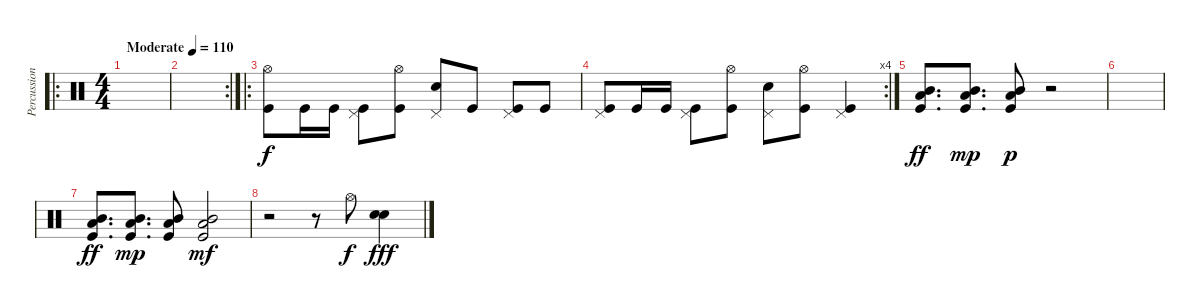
\track ("Percussion" "Percussion") {instrument percussion}
\staff {score}
\articulation defaults
\ro
\ts (4 4)
\tempo (110 "Moderate")
\clef neutral
\ks c
|
\rc 2
|
\ro
("Hi-Hat (open)" "Kick (hit)").8 "Kick (hit)".16 "Kick (hit)".16 ("Pedal Hi-Hat (hit)" "Kick (hit)").8 ("Hi-Hat (open)" "Kick (hit)").8 ("Pedal Hi-Hat (hit)" "Electric Snare (hit)").8 "Kick (hit)".8 ("Pedal Hi-Hat (hit)" "Kick (hit)").8 "Kick (hit)".8 |
\rc 4
("Pedal Hi-Hat (hit)" "Kick (hit)").8 "Kick (hit)".16 "Kick (hit)".16 ("Pedal Hi-Hat (hit)" "Kick (hit)").8 ("Hi-Hat (open)" "Kick (hit)").8 ("Pedal Hi-Hat (hit)" "Electric Snare (hit)").8 ("Hi-Hat (open)" "Kick (hit)").8 ("Pedal Hi-Hat (hit)" "Kick (hit)").4 |
("Mid Tom (hit)" "Low Floor Tom (hit)" "Kick (hit)").8{d bd 60 dy ff} ("Mid Tom (hit)" "Low Floor Tom (hit)" "Kick (hit)").8{d bd 60 dy mp} ("Mid Tom (hit)" "Low Floor Tom (hit)" "Kick (hit)").8{bd 60 dy p} r.2 |
|
("Mid Tom (hit)" "Low Floor Tom (hit)" "Kick (hit)").8{d bd 60 dy ff} ("Mid Tom (hit)" "Low Floor Tom (hit)" "Kick (hit)").8{d bd 60 dy mp} ("Mid Tom (hit)" "Low Floor Tom (hit)" "Kick (hit)").8{bd 60} ("Mid Tom (hit)" "Low Floor Tom (hit)" "Kick (hit)").2{bd 60 dy mf} |
r.2 r.8 "Hi-Hat (open)".8{dy f} ("Electric Snare (hit)" "Electric Snare (hit)").4{bd 240 dy fff}
